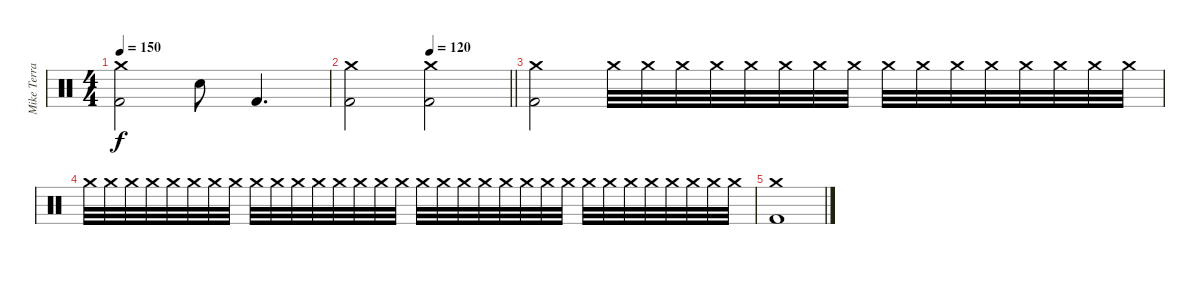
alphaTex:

\track ("Mike Terrana" "Mike Terra") {instrument percussion}
\staff {score}
\articulation defaults
\ts (4 4)
\tempo 150
\clef neutral
\ks c
("Crash medium (hit)" "Kick (hit) 2").2{dy f} "Snare (hit) 2".8 "Kick (hit) 2".4{d} |
\tempo (120 0.5)
\barLineRight lightlight
("Crash medium (hit)" "Kick (hit) 2").2 ("Crash medium (hit)" "Kick (hit) 2").2 |
("Crash medium (hit)" "Kick (hit) 2").2 "Crash medium (hit)".32 "Crash medium (hit)".32 "Crash medium (hit)".32 "Crash medium (hit)".32 "Crash medium (hit)".32 "Crash medium (hit)".32 "Crash medium (hit)".32 "Crash medium (hit)".32 "Crash medium (hit)".32 "Crash medium (hit)".32 "Crash medium (hit)".32 "Crash medium (hit)".32 "Crash medium (hit)".32 "Crash medium (hit)".32 "Crash medium (hit)".32 "Crash medium (hit)".32 |
"Crash medium (hit)".32 "Crash medium (hit)".32 "Crash medium (hit)".32 "Crash medium (hit)".32 "Crash medium (hit)".32 "Crash medium (hit)".32 "Crash medium (hit)".32 "Crash medium (hit)".32 "Crash medium (hit)".32 "Crash medium (hit)".32 "Crash medium (hit)".32 "Crash medium (hit)".32 "Crash medium (hit)".32 "Crash medium (hit)".32 "Crash medium (hit)".32 "Crash medium (hit)".32 "Crash medium (hit)".32 "Crash medium (hit)".32 "Crash medium (hit)".32 "Crash medium (hit)".32 "Crash medium (hit)".32 "Crash medium (hit)".32 "Crash medium (hit)".32 "Crash medium (hit)".32 "Crash medium (hit)".32 "Crash medium (hit)".32 "Crash medium (hit)".32 "Crash medium (hit)".32 "Crash medium (hit)".32 "Crash medium (hit)".32 "Crash medium (hit)".32 "Crash medium (hit)".32 |
("Crash medium (hit)" "Kick (hit) 2").1
